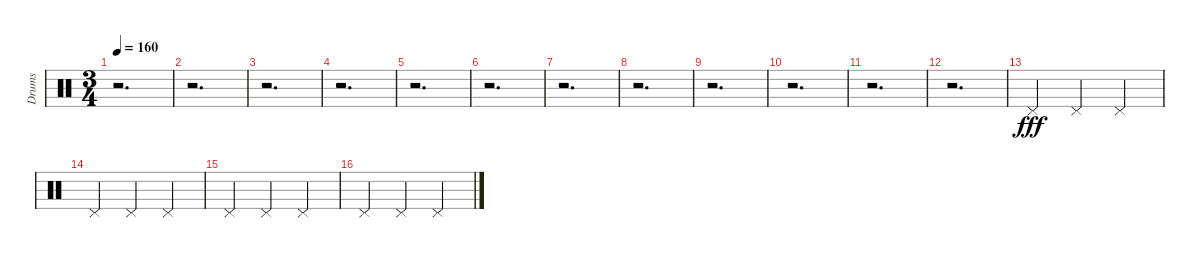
\track ("Drums" "Drums") {instrument percussion}
\staff {score}
\articulation defaults
\ts (3 4)
\tempo 160
\clef neutral
\ks c
r.2{d dy fff} |
r.2{d} |
r.2{d} |
r.2{d} |
r.2{d} |
r.2{d} |
r.2{d} |
r.2{d} |
r.2{d} |
r.2{d} |
r.2{d} |
r.2{d} |
"Pedal Hi-Hat (hit)".4{volume 16 balance 8} "Pedal Hi-Hat (hit)".4 "Pedal Hi-Hat (hit)".4 |
"Pedal Hi-Hat (hit)".4 "Pedal Hi-Hat (hit)".4 "Pedal Hi-Hat (hit)".4 |
"Pedal Hi-Hat (hit)".4 "Pedal Hi-Hat (hit)".4 "Pedal Hi-Hat (hit)".4 |
"Pedal Hi-Hat (hit)".4 "Pedal Hi-Hat (hit)".4 "Pedal Hi-Hat (hit)".4
